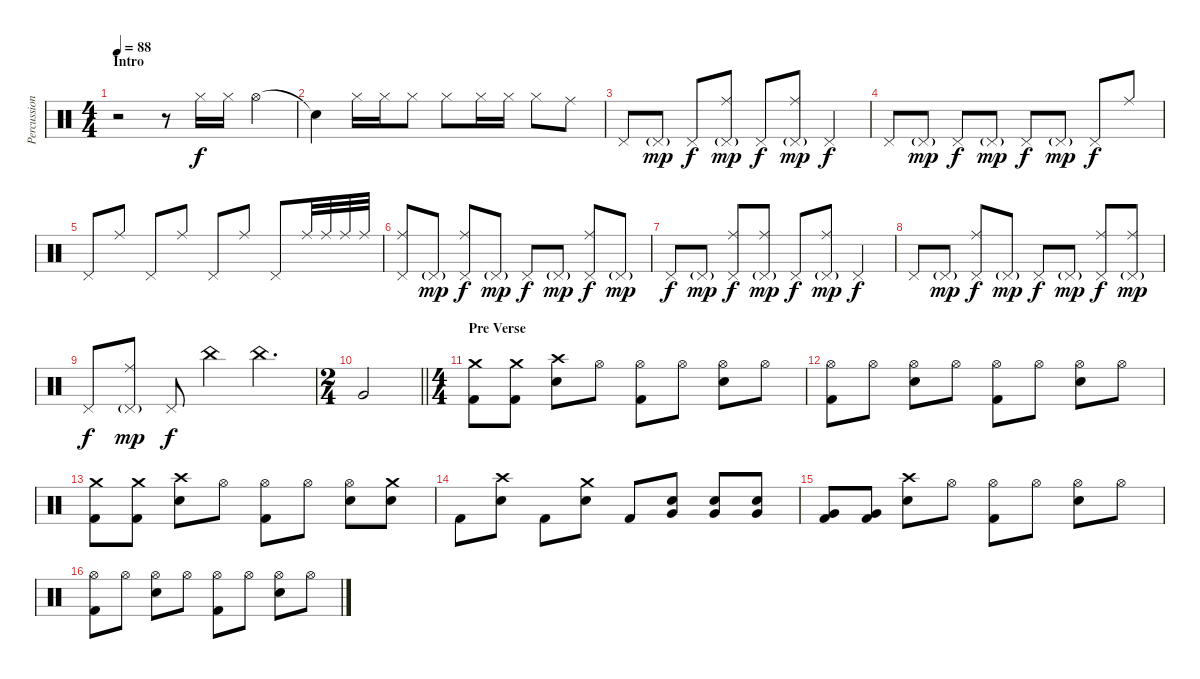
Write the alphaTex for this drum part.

\track ("Percussions" "Percussion") {instrument percussion}
\staff {score}
\articulation defaults
\ts (4 4)
\section ("" "Intro")
\tempo 88
\clef neutral
\ks c
r.2{dy f} r.8 "Hi-Hat (closed)".16 "Hi-Hat (closed)".16 "Hi-Hat (open)".4 |
"Snare (hit)"{t}.4 "Hi-Hat (closed)".16 "Hi-Hat (closed)".16 "Hi-Hat (closed)".8 "Hi-Hat (closed)".8 "Hi-Hat (closed)".16 "Hi-Hat (closed)".16 "Hi-Hat (closed)".8 "Ride (middle)".8 |
"Pedal Hi-Hat (hit)".8 "Pedal Hi-Hat (hit)"{g}.8{dy mp} "Pedal Hi-Hat (hit)".8{dy f} ("Ride (middle)" "Pedal Hi-Hat (hit)"{g}).8{dy mp} "Pedal Hi-Hat (hit)".8{dy f} ("Ride (middle)" "Pedal Hi-Hat (hit)"{g}).8{dy mp} "Pedal Hi-Hat (hit)".4{dy f} |
"Pedal Hi-Hat (hit)".8 "Pedal Hi-Hat (hit)"{g}.8{dy mp} "Pedal Hi-Hat (hit)".8{dy f} "Pedal Hi-Hat (hit)"{g}.8{dy mp} "Pedal Hi-Hat (hit)".8{dy f} "Pedal Hi-Hat (hit)"{g}.8{dy mp} "Pedal Hi-Hat (hit)".8{dy f} "Ride (middle)".8 |
"Pedal Hi-Hat (hit)".8 "Ride (middle)".8 "Pedal Hi-Hat (hit)".8 "Ride (middle)".8 "Pedal Hi-Hat (hit)".8 "Ride (middle)".8 "Pedal Hi-Hat (hit)".8 "Ride (middle)".32 "Ride (middle)".32 "Ride (middle)".32 "Ride (middle)".32 |
("Ride (middle)" "Pedal Hi-Hat (hit)").8 "Pedal Hi-Hat (hit)"{g}.8{dy mp} ("Ride (middle)" "Pedal Hi-Hat (hit)").8{dy f} "Pedal Hi-Hat (hit)"{g}.8{dy mp} "Pedal Hi-Hat (hit)".8{dy f} "Pedal Hi-Hat (hit)"{g}.8{dy mp} ("Ride (middle)" "Pedal Hi-Hat (hit)").8{dy f} "Pedal Hi-Hat (hit)"{g}.8{dy mp} |
"Pedal Hi-Hat (hit)".8{dy f} "Pedal Hi-Hat (hit)"{g}.8{dy mp} ("Ride (middle)" "Pedal Hi-Hat (hit)").8{dy f} ("Ride (middle)" "Pedal Hi-Hat (hit)"{g}).8{dy mp} "Pedal Hi-Hat (hit)".8{dy f} ("Ride (middle)" "Pedal Hi-Hat (hit)"{g}).8{dy mp} "Pedal Hi-Hat (hit)".4{dy f} |
"Pedal Hi-Hat (hit)".8 "Pedal Hi-Hat (hit)"{g}.8{dy mp} ("Ride (middle)" "Pedal Hi-Hat (hit)").8{dy f} "Pedal Hi-Hat (hit)"{g}.8{dy mp} "Pedal Hi-Hat (hit)".8{dy f} "Pedal Hi-Hat (hit)"{g}.8{dy mp} ("Ride (middle)" "Pedal Hi-Hat (hit)").8{dy f} ("Ride (middle)" "Pedal Hi-Hat (hit)"{g}).8{dy mp} |
"Pedal Hi-Hat (hit)".8{dy f} ("Ride (middle)" "Pedal Hi-Hat (hit)"{g}).8{dy mp} "Pedal Hi-Hat (hit)".8{dy f} "China (hit)".4 "China (hit)".4{d} |
\ts (2 4)
\barLineRight lightlight "Very Low Tom (hit)".2
|
\ts (4 4)
\section ("" "Pre Verse")
("Crash medium (hit)" "Kick (hit) 2").8 ("Crash medium (hit)" "Kick (hit) 2").8 ("Crash high (hit)" "Snare (hit) 2").8 "Hi-Hat (open)".8 ("Hi-Hat (open)" "Kick (hit) 2").8 "Hi-Hat (open)".8 ("Hi-Hat (open)" "Snare (hit) 2").8 "Hi-Hat (open)".8 |
("Hi-Hat (open)" "Kick (hit) 2").8 "Hi-Hat (open)".8 ("Hi-Hat (open)" "Snare (hit) 2").8 "Hi-Hat (open)".8 ("Hi-Hat (open)" "Kick (hit) 2").8 "Hi-Hat (open)".8 ("Hi-Hat (open)" "Snare (hit) 2").8 "Hi-Hat (open)".8 |
("Crash medium (hit)" "Kick (hit) 2").8 ("Crash medium (hit)" "Kick (hit) 2").8 ("Crash high (hit)" "Snare (hit) 2").8 "Hi-Hat (open)".8 ("Hi-Hat (open)" "Kick (hit) 2").8 "Hi-Hat (open)".8 ("Hi-Hat (open)" "Snare (hit) 2").8 ("Crash medium (hit)" "Snare (hit) 2").8 |
"Kick (hit) 2".8 ("Crash high (hit)" "Snare (hit) 2").8 "Kick (hit) 2".8 ("Crash medium (hit)" "Snare (hit) 2").8 "Kick (hit) 2".8 ("Snare (hit) 2" "Very Low Tom (hit)").8 ("Snare (hit) 2" "Very Low Tom (hit)").8 ("Snare (hit) 2" "Very Low Tom (hit)").8 |
("Very Low Tom (hit)" "Kick (hit) 2").8 ("Very Low Tom (hit)" "Kick (hit) 2").8 ("Crash high (hit)" "Snare (hit) 2").8 "Hi-Hat (open)".8 ("Hi-Hat (open)" "Kick (hit) 2").8 "Hi-Hat (open)".8 ("Hi-Hat (open)" "Snare (hit) 2").8 "Hi-Hat (open)".8 |
("Hi-Hat (open)" "Kick (hit) 2").8 "Hi-Hat (open)".8 ("Hi-Hat (open)" "Snare (hit) 2").8 "Hi-Hat (open)".8 ("Hi-Hat (open)" "Kick (hit) 2").8 "Hi-Hat (open)".8 ("Hi-Hat (open)" "Snare (hit) 2").8 "Hi-Hat (open)".8
